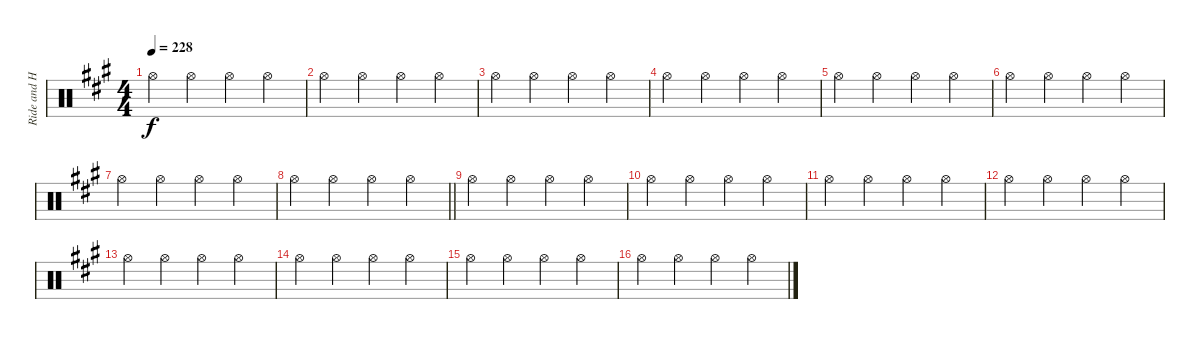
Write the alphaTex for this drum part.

\track ("Ride and Hi Hat" "Ride and H") {instrument percussion}
\staff {score}
\articulation defaults
\ts (4 4)
\tempo 228
\clef neutral
\ks a "Hi-Hat (open)".4{dy f} "Hi-Hat (open)".4 "Hi-Hat (open)".4 "Hi-Hat (open)".4
|
"Hi-Hat (open)".4 "Hi-Hat (open)".4 "Hi-Hat (open)".4 "Hi-Hat (open)".4 |
"Hi-Hat (open)".4 "Hi-Hat (open)".4 "Hi-Hat (open)".4 "Hi-Hat (open)".4 |
"Hi-Hat (open)".4 "Hi-Hat (open)".4 "Hi-Hat (open)".4 "Hi-Hat (open)".4 |
"Hi-Hat (open)".4 "Hi-Hat (open)".4 "Hi-Hat (open)".4 "Hi-Hat (open)".4 |
"Hi-Hat (open)".4 "Hi-Hat (open)".4 "Hi-Hat (open)".4 "Hi-Hat (open)".4 |
"Hi-Hat (open)".4 "Hi-Hat (open)".4 "Hi-Hat (open)".4 "Hi-Hat (open)".4 |
\barLineRight lightlight "Hi-Hat (open)".4 "Hi-Hat (open)".4 "Hi-Hat (open)".4 "Hi-Hat (open)".4
|
"Hi-Hat (open)".4 "Hi-Hat (open)".4 "Hi-Hat (open)".4 "Hi-Hat (open)".4 |
"Hi-Hat (open)".4 "Hi-Hat (open)".4 "Hi-Hat (open)".4 "Hi-Hat (open)".4 |
"Hi-Hat (open)".4 "Hi-Hat (open)".4 "Hi-Hat (open)".4 "Hi-Hat (open)".4 |
"Hi-Hat (open)".4 "Hi-Hat (open)".4 "Hi-Hat (open)".4 "Hi-Hat (open)".4 |
"Hi-Hat (open)".4 "Hi-Hat (open)".4 "Hi-Hat (open)".4 "Hi-Hat (open)".4 |
"Hi-Hat (open)".4 "Hi-Hat (open)".4 "Hi-Hat (open)".4 "Hi-Hat (open)".4 |
"Hi-Hat (open)".4 "Hi-Hat (open)".4 "Hi-Hat (open)".4 "Hi-Hat (open)".4 |
"Hi-Hat (open)".4 "Hi-Hat (open)".4 "Hi-Hat (open)".4 "Hi-Hat (open)".4
